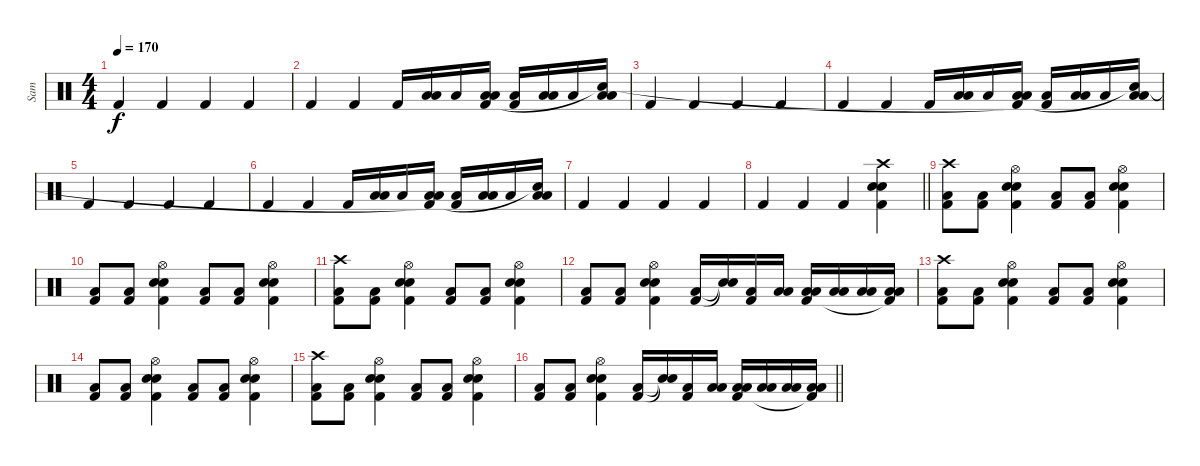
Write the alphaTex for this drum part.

\track ("Sam" "Sam") {instrument percussion}
\staff {score}
\articulation defaults
\ts (4 4)
\tempo 170
\clef neutral
\ks c "Kick (hit) 2".4{dy f} "Kick (hit) 2".4 "Kick (hit) 2".4 "Kick (hit) 2".4
|
"Kick (hit) 2".4 "Kick (hit) 2".4 "Kick (hit) 2".16 ("Low Tom (hit)" "Low Floor Tom (hit)").16 "Low Tom (hit)".16 ("Low Tom (hit)" "Low Floor Tom (hit)" "Kick (hit) 2"{t}).16 ("Low Tom (hit)" "Kick (hit) 2").16 ("Low Tom (hit)" "Low Floor Tom (hit)").16 "Low Tom (hit)".16 ("Low Tom (hit)" "Low Floor Tom (hit)" "Snare (hit)"{t}).16 |
"Kick (hit) 2".4 "Kick (hit) 2".4 "Kick (hit) 2".4 "Kick (hit) 2".4 |
"Kick (hit) 2".4 "Kick (hit) 2".4 "Kick (hit) 2".16 ("Low Tom (hit)" "Low Floor Tom (hit)").16 "Low Tom (hit)".16 ("Low Tom (hit)" "Low Floor Tom (hit)" "Kick (hit) 2"{t}).16 ("Low Tom (hit)" "Kick (hit) 2").16 ("Low Tom (hit)" "Low Floor Tom (hit)").16 "Low Tom (hit)".16 ("Low Tom (hit)" "Low Floor Tom (hit)" "Snare (hit)"{t}).16 |
"Kick (hit) 2".4 "Kick (hit) 2".4 "Kick (hit) 2".4 "Kick (hit) 2".4 |
"Kick (hit) 2".4 "Kick (hit) 2".4 "Kick (hit) 2".16 ("Low Tom (hit)" "Low Floor Tom (hit)").16 "Low Tom (hit)".16 ("Low Tom (hit)" "Low Floor Tom (hit)" "Kick (hit) 2"{t}).16 ("Low Tom (hit)" "Kick (hit) 2").16 ("Low Tom (hit)" "Low Floor Tom (hit)").16 "Low Tom (hit)".16 ("Low Tom (hit)" "Low Floor Tom (hit)" "Snare (hit)"{t}).16 |
"Kick (hit) 2".4 "Kick (hit) 2".4 "Kick (hit) 2".4 "Kick (hit) 2".4 |
\barLineRight lightlight "Kick (hit) 2".4 "Kick (hit) 2".4 "Kick (hit) 2".4
("Crash high (hit)" "Snare (hit) 2" "Snare (hit) 2" "Kick (hit) 2").4 |
\section ("" "")
("Crash high (hit)" "Low Floor Tom (hit)" "Kick (hit) 2").8 ("Low Floor Tom (hit)" "Kick (hit) 2").8 ("Hi-Hat (open)" "Snare (hit) 2" "Snare (hit) 2" "Kick (hit) 2").4 ("Low Floor Tom (hit)" "Kick (hit) 2").8 ("Low Floor Tom (hit)" "Kick (hit) 2").8 ("Hi-Hat (open)" "Snare (hit) 2" "Snare (hit) 2" "Kick (hit) 2").4 |
("Low Floor Tom (hit)" "Kick (hit) 2").8 ("Low Floor Tom (hit)" "Kick (hit) 2").8 ("Hi-Hat (open)" "Snare (hit) 2" "Snare (hit) 2" "Kick (hit) 2").4 ("Low Floor Tom (hit)" "Kick (hit) 2").8 ("Low Floor Tom (hit)" "Kick (hit) 2").8 ("Hi-Hat (open)" "Snare (hit) 2" "Snare (hit) 2" "Kick (hit) 2").4 |
("Crash high (hit)" "Low Floor Tom (hit)" "Kick (hit) 2").8 ("Low Floor Tom (hit)" "Kick (hit) 2").8 ("Hi-Hat (open)" "Snare (hit) 2" "Snare (hit) 2" "Kick (hit) 2").4 ("Low Floor Tom (hit)" "Kick (hit) 2").8 ("Low Floor Tom (hit)" "Kick (hit) 2").8 ("Hi-Hat (open)" "Snare (hit) 2" "Snare (hit) 2" "Kick (hit) 2").4 |
("Low Floor Tom (hit)" "Kick (hit) 2").8 ("Low Floor Tom (hit)" "Kick (hit) 2").8 ("Hi-Hat (open)" "Snare (hit) 2" "Snare (hit) 2" "Kick (hit) 2").4 ("Low Floor Tom (hit)" "Kick (hit) 2").16 ("Snare (hit)"{t} "Snare (hit)"{t}).16 ("Low Floor Tom (hit)" "Kick (hit) 2").16 ("Low Floor Tom (hit)" "Low Tom (hit)").16 ("Low Floor Tom (hit)" "Low Tom (hit)" "Kick (hit) 2").16 ("Low Floor Tom (hit)" "Low Tom (hit)").16 ("Low Floor Tom (hit)" "Low Tom (hit)").16 ("Low Floor Tom (hit)" "Low Tom (hit)" "Kick (hit) 2"{t}).16 |
("Crash high (hit)" "Low Floor Tom (hit)" "Kick (hit) 2").8 ("Low Floor Tom (hit)" "Kick (hit) 2").8 ("Hi-Hat (open)" "Snare (hit) 2" "Snare (hit) 2" "Kick (hit) 2").4 ("Low Floor Tom (hit)" "Kick (hit) 2").8 ("Low Floor Tom (hit)" "Kick (hit) 2").8 ("Hi-Hat (open)" "Snare (hit) 2" "Snare (hit) 2" "Kick (hit) 2").4 |
("Low Floor Tom (hit)" "Kick (hit) 2").8 ("Low Floor Tom (hit)" "Kick (hit) 2").8 ("Hi-Hat (open)" "Snare (hit) 2" "Snare (hit) 2" "Kick (hit) 2").4 ("Low Floor Tom (hit)" "Kick (hit) 2").8 ("Low Floor Tom (hit)" "Kick (hit) 2").8 ("Hi-Hat (open)" "Snare (hit) 2" "Snare (hit) 2" "Kick (hit) 2").4 |
("Crash high (hit)" "Low Floor Tom (hit)" "Kick (hit) 2").8 ("Low Floor Tom (hit)" "Kick (hit) 2").8 ("Hi-Hat (open)" "Snare (hit) 2" "Snare (hit) 2" "Kick (hit) 2").4 ("Low Floor Tom (hit)" "Kick (hit) 2").8 ("Low Floor Tom (hit)" "Kick (hit) 2").8 ("Hi-Hat (open)" "Snare (hit) 2" "Snare (hit) 2" "Kick (hit) 2").4 |
\barLineRight lightlight
("Low Floor Tom (hit)" "Kick (hit) 2").8 ("Low Floor Tom (hit)" "Kick (hit) 2").8 ("Hi-Hat (open)" "Snare (hit) 2" "Snare (hit) 2" "Kick (hit) 2").4 ("Low Floor Tom (hit)" "Kick (hit) 2").16 ("Snare (hit)"{t} "Snare (hit)"{t}).16 ("Low Floor Tom (hit)" "Kick (hit) 2").16 ("Low Floor Tom (hit)" "Low Tom (hit)").16 ("Low Floor Tom (hit)" "Low Tom (hit)" "Kick (hit) 2").16 ("Low Floor Tom (hit)" "Low Tom (hit)").16 ("Low Floor Tom (hit)" "Low Tom (hit)").16 ("Low Floor Tom (hit)" "Low Tom (hit)" "Kick (hit) 2"{t}).16
